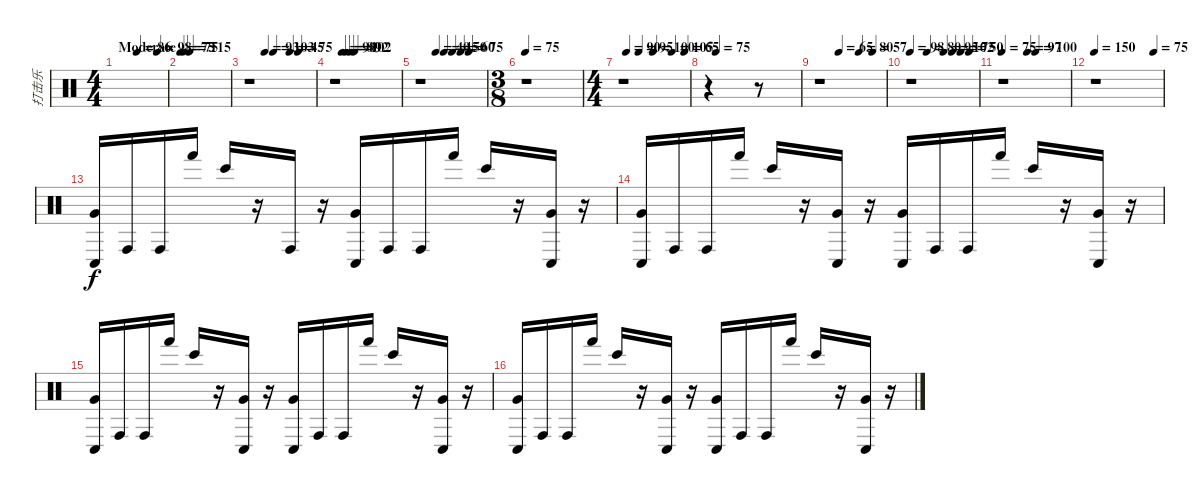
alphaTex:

\track ("打击乐" "打击乐") {instrument percussion}
\staff {score}
\articulation defaults
\ts (4 4)
\tempo (75 "Moderate")
\tempo (86 0.40625)
\tempo (98 0.8125)
\tempo (75 "Moderate")
\clef neutral
\ks c
|
\tempo 75
\tempo (115 0.1875)
|
\tempo (93 0.25)
\tempo (103 0.375)
\tempo (45 0.625)
\tempo (75 0.75)
r.1 |
\tempo (98 0.125)
\tempo (80 0.1875)
\tempo (102 0.25)
\tempo (92 0.3125)
r.1 |
\tempo (40 0.25)
\tempo (45 0.375)
\tempo (50 0.5)
\tempo (60 0.625)
\tempo (75 0.75)
r.1 |
\ts (3 8)
\tempo 75
r.1 |
\ts (4 4)
\tempo (90 0.0625)
\tempo (95 0.25)
\tempo (100 0.46875)
\tempo (105 0.75)
\tempo (65 0.9375)
r.1 |
\tempo (75 0.09375)
r.4 r.8 |
\tempo (65 0.3046875)
\tempo (80 0.609375)
\tempo (57 0.8125)
r.1 |
\tempo 98
\tempo (80 0.25)
\tempo (95 0.5)
\tempo (102 0.625)
\tempo (75 0.75)
\tempo (50 0.875)
r.1 |
\tempo 75
\tempo (97 0.375)
\tempo (100 0.5)
r.1 |
\tempo 150
\tempo (75 0.875)
r.1 |
("Conga low (hit)" "Very Low Tom (hit)").16 "Conga high (hit)".16 "Conga high (hit)".16 "Hand (hit)".16 "Bongo High (hit)".16 r.16 "Conga high (hit)".16 r.16 ("Conga low (hit)" "Very Low Tom (hit)").16 "Conga high (hit)".16 "Conga high (hit)".16 "Hand (hit)".16 "Bongo High (hit)".16 r.16 ("Conga low (hit)" "Very Low Tom (hit)").16 r.16 |
("Conga low (hit)" "Very Low Tom (hit)").16 "Conga high (hit)".16 "Conga high (hit)".16 "Hand (hit)".16 "Bongo High (hit)".16 r.16 ("Conga low (hit)" "Very Low Tom (hit)").16 r.16 ("Conga low (hit)" "Very Low Tom (hit)").16 "Conga high (hit)".16 "Conga high (hit)".16 "Hand (hit)".16 "Bongo High (hit)".16 r.16 ("Conga low (hit)" "Very Low Tom (hit)").16 r.16 |
("Conga low (hit)" "Very Low Tom (hit)").16 "Conga high (hit)".16 "Conga high (hit)".16 "Hand (hit)".16 "Bongo High (hit)".16 r.16 ("Conga low (hit)" "Very Low Tom (hit)").16 r.16 ("Conga low (hit)" "Very Low Tom (hit)").16 "Conga high (hit)".16 "Conga high (hit)".16 "Hand (hit)".16 "Bongo High (hit)".16 r.16 ("Conga low (hit)" "Very Low Tom (hit)").16 r.16 |
("Conga low (hit)" "Very Low Tom (hit)").16 "Conga high (hit)".16 "Conga high (hit)".16 "Hand (hit)".16 "Bongo High (hit)".16 r.16 ("Conga low (hit)" "Very Low Tom (hit)").16 r.16 ("Conga low (hit)" "Very Low Tom (hit)").16 "Conga high (hit)".16 "Conga high (hit)".16 "Hand (hit)".16 "Bongo High (hit)".16 r.16 ("Conga low (hit)" "Very Low Tom (hit)").16 r.16
